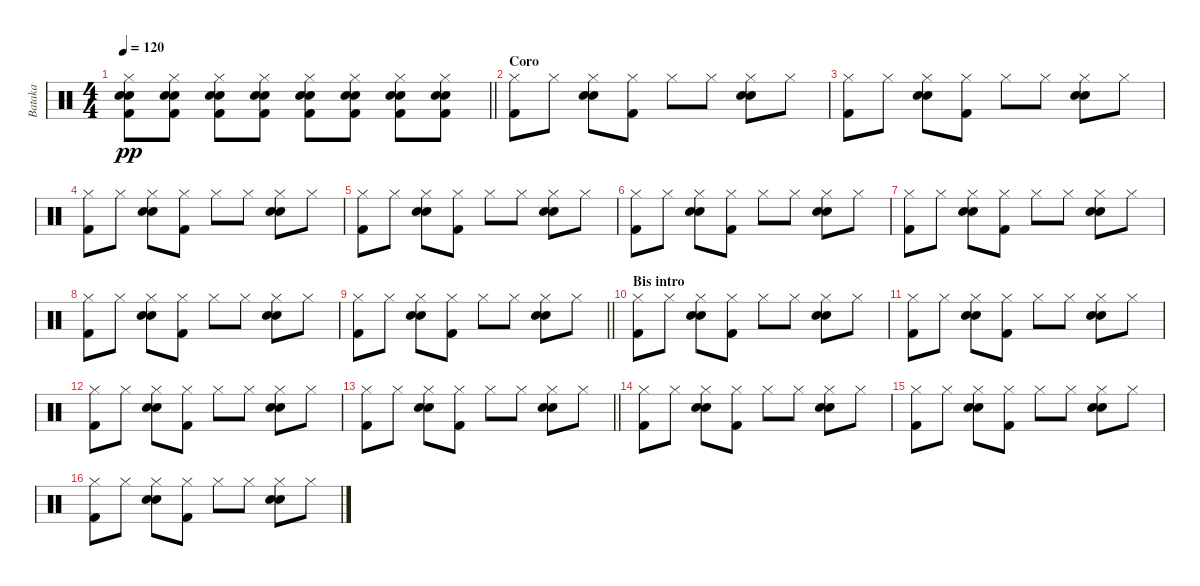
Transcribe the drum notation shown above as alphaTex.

\track ("Bataka" "Bataka") {instrument percussion}
\staff {score}
\articulation defaults
\ts (4 4)
\tempo 120
\clef neutral
\barLineRight lightlight
\ks c
("Hi-Hat (closed)" "Kick (hit) 2" "Electric Snare (hit)" "Snare (hit) 2").8{dy pp} ("Hi-Hat (closed)" "Kick (hit) 2" "Electric Snare (hit)" "Snare (hit) 2").8 ("Hi-Hat (closed)" "Kick (hit) 2" "Electric Snare (hit)" "Snare (hit) 2").8 ("Hi-Hat (closed)" "Kick (hit) 2" "Electric Snare (hit)" "Snare (hit) 2").8 ("Hi-Hat (closed)" "Kick (hit) 2" "Electric Snare (hit)" "Snare (hit) 2").8 ("Hi-Hat (closed)" "Kick (hit) 2" "Electric Snare (hit)" "Snare (hit) 2").8 ("Hi-Hat (closed)" "Kick (hit) 2" "Electric Snare (hit)" "Snare (hit) 2").8 ("Hi-Hat (closed)" "Kick (hit) 2" "Electric Snare (hit)" "Snare (hit) 2").8 |
\section ("" "Coro")
("Hi-Hat (closed)" "Kick (hit) 2").8 "Hi-Hat (closed)".8 ("Hi-Hat (closed)" "Electric Snare (hit)" "Snare (hit) 2").8 ("Hi-Hat (closed)" "Kick (hit) 2").8 "Hi-Hat (closed)".8 "Hi-Hat (closed)".8 ("Hi-Hat (closed)" "Snare (hit) 2" "Electric Snare (hit)").8 "Hi-Hat (closed)".8 |
("Hi-Hat (closed)" "Kick (hit) 2").8 "Hi-Hat (closed)".8 ("Hi-Hat (closed)" "Electric Snare (hit)" "Snare (hit) 2").8 ("Hi-Hat (closed)" "Kick (hit) 2").8 "Hi-Hat (closed)".8 "Hi-Hat (closed)".8 ("Hi-Hat (closed)" "Snare (hit) 2" "Electric Snare (hit)").8 "Hi-Hat (closed)".8 |
("Hi-Hat (closed)" "Kick (hit) 2").8 "Hi-Hat (closed)".8 ("Hi-Hat (closed)" "Electric Snare (hit)" "Snare (hit) 2").8 ("Hi-Hat (closed)" "Kick (hit) 2").8 "Hi-Hat (closed)".8 "Hi-Hat (closed)".8 ("Hi-Hat (closed)" "Snare (hit) 2" "Electric Snare (hit)").8 "Hi-Hat (closed)".8 |
("Hi-Hat (closed)" "Kick (hit) 2").8 "Hi-Hat (closed)".8 ("Hi-Hat (closed)" "Electric Snare (hit)" "Snare (hit) 2").8 ("Hi-Hat (closed)" "Kick (hit) 2").8 "Hi-Hat (closed)".8 "Hi-Hat (closed)".8 ("Hi-Hat (closed)" "Snare (hit) 2" "Electric Snare (hit)").8 "Hi-Hat (closed)".8 |
("Hi-Hat (closed)" "Kick (hit) 2").8 "Hi-Hat (closed)".8 ("Hi-Hat (closed)" "Electric Snare (hit)" "Snare (hit) 2").8 ("Hi-Hat (closed)" "Kick (hit) 2").8 "Hi-Hat (closed)".8 "Hi-Hat (closed)".8 ("Hi-Hat (closed)" "Snare (hit) 2" "Electric Snare (hit)").8 "Hi-Hat (closed)".8 |
("Hi-Hat (closed)" "Kick (hit) 2").8 "Hi-Hat (closed)".8 ("Hi-Hat (closed)" "Electric Snare (hit)" "Snare (hit) 2").8 ("Hi-Hat (closed)" "Kick (hit) 2").8 "Hi-Hat (closed)".8 "Hi-Hat (closed)".8 ("Hi-Hat (closed)" "Snare (hit) 2" "Electric Snare (hit)").8 "Hi-Hat (closed)".8 |
("Hi-Hat (closed)" "Kick (hit) 2").8 "Hi-Hat (closed)".8 ("Hi-Hat (closed)" "Electric Snare (hit)" "Snare (hit) 2").8 ("Hi-Hat (closed)" "Kick (hit) 2").8 "Hi-Hat (closed)".8 "Hi-Hat (closed)".8 ("Hi-Hat (closed)" "Snare (hit) 2" "Electric Snare (hit)").8 "Hi-Hat (closed)".8 |
\barLineRight lightlight
("Hi-Hat (closed)" "Kick (hit) 2").8 "Hi-Hat (closed)".8 ("Hi-Hat (closed)" "Electric Snare (hit)" "Snare (hit) 2").8 ("Hi-Hat (closed)" "Kick (hit) 2").8 "Hi-Hat (closed)".8 "Hi-Hat (closed)".8 ("Hi-Hat (closed)" "Snare (hit) 2" "Electric Snare (hit)").8 "Hi-Hat (closed)".8 |
\section ("" "Bis intro")
("Hi-Hat (closed)" "Kick (hit) 2").8 "Hi-Hat (closed)".8 ("Hi-Hat (closed)" "Electric Snare (hit)" "Snare (hit) 2").8 ("Hi-Hat (closed)" "Kick (hit) 2").8 "Hi-Hat (closed)".8 "Hi-Hat (closed)".8 ("Hi-Hat (closed)" "Snare (hit) 2" "Electric Snare (hit)").8 "Hi-Hat (closed)".8 |
("Hi-Hat (closed)" "Kick (hit) 2").8 "Hi-Hat (closed)".8 ("Hi-Hat (closed)" "Electric Snare (hit)" "Snare (hit) 2").8 ("Hi-Hat (closed)" "Kick (hit) 2").8 "Hi-Hat (closed)".8 "Hi-Hat (closed)".8 ("Hi-Hat (closed)" "Snare (hit) 2" "Electric Snare (hit)").8 "Hi-Hat (closed)".8 |
("Hi-Hat (closed)" "Kick (hit) 2").8 "Hi-Hat (closed)".8 ("Hi-Hat (closed)" "Electric Snare (hit)" "Snare (hit) 2").8 ("Hi-Hat (closed)" "Kick (hit) 2").8 "Hi-Hat (closed)".8 "Hi-Hat (closed)".8 ("Hi-Hat (closed)" "Snare (hit) 2" "Electric Snare (hit)").8 "Hi-Hat (closed)".8 |
\barLineRight lightlight
("Hi-Hat (closed)" "Kick (hit) 2").8 "Hi-Hat (closed)".8 ("Hi-Hat (closed)" "Electric Snare (hit)" "Snare (hit) 2").8 ("Hi-Hat (closed)" "Kick (hit) 2").8 "Hi-Hat (closed)".8 "Hi-Hat (closed)".8 ("Hi-Hat (closed)" "Snare (hit) 2" "Electric Snare (hit)").8 "Hi-Hat (closed)".8 |
("Hi-Hat (closed)" "Kick (hit) 2").8 "Hi-Hat (closed)".8 ("Hi-Hat (closed)" "Electric Snare (hit)" "Snare (hit) 2").8 ("Hi-Hat (closed)" "Kick (hit) 2").8 "Hi-Hat (closed)".8 "Hi-Hat (closed)".8 ("Hi-Hat (closed)" "Snare (hit) 2" "Electric Snare (hit)").8 "Hi-Hat (closed)".8 |
("Hi-Hat (closed)" "Kick (hit) 2").8 "Hi-Hat (closed)".8 ("Hi-Hat (closed)" "Electric Snare (hit)" "Snare (hit) 2").8 ("Hi-Hat (closed)" "Kick (hit) 2").8 "Hi-Hat (closed)".8 "Hi-Hat (closed)".8 ("Hi-Hat (closed)" "Snare (hit) 2" "Electric Snare (hit)").8 "Hi-Hat (closed)".8 |
("Hi-Hat (closed)" "Kick (hit) 2").8 "Hi-Hat (closed)".8 ("Hi-Hat (closed)" "Electric Snare (hit)" "Snare (hit) 2").8 ("Hi-Hat (closed)" "Kick (hit) 2").8 "Hi-Hat (closed)".8 "Hi-Hat (closed)".8 ("Hi-Hat (closed)" "Snare (hit) 2" "Electric Snare (hit)").8 "Hi-Hat (closed)".8
